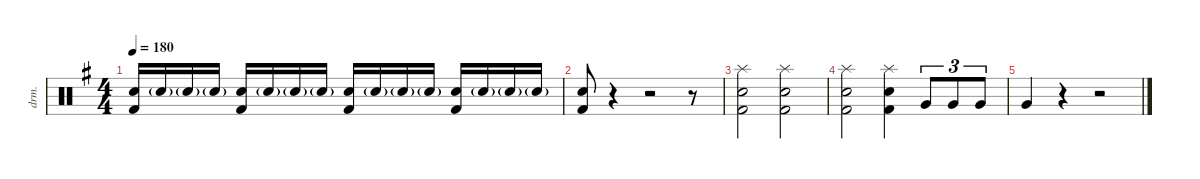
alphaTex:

\defaultSystemsLayout 4
\hideDynamics
\bracketExtendMode nobrackets
\otherSystemsTrackNameOrientation horizontal
\track ("Lars Ulrich" "drm.") {instrument percussion}
\staff {score}
\articulation defaults
\ts (4 4)
\tempo 180
\clef neutral
\ks eminor
("Snare (hit) 2"{acc forcenatural} "Kick (hit) 2"{acc forcenatural}).16{dy f beam Up} "Snare (hit) 2"{g acc forcenatural}.16{dy ff beam Up} "Snare (hit) 2"{g acc forcenatural}.16{beam Up} "Snare (hit) 2"{g acc forcenatural}.16{beam Up} ("Snare (hit) 2"{acc forcenatural} "Kick (hit) 2"{acc forcenatural}).16{dy f beam Up} "Snare (hit) 2"{g acc forcenatural}.16{dy ff beam Up} "Snare (hit) 2"{g acc forcenatural}.16{beam Up} "Snare (hit) 2"{g acc forcenatural}.16{beam Up} ("Snare (hit) 2"{acc forcenatural} "Kick (hit) 2"{acc forcenatural}).16{dy f beam Up} "Snare (hit) 2"{g acc forcenatural}.16{dy ff beam Up} "Snare (hit) 2"{g acc forcenatural}.16{beam Up} "Snare (hit) 2"{g acc forcenatural}.16{beam Up} ("Snare (hit) 2"{acc forcenatural} "Kick (hit) 2"{acc forcenatural}).16{dy f beam Up} "Snare (hit) 2"{g acc forcenatural}.16{dy ff beam Up} "Snare (hit) 2"{g acc forcenatural}.16{beam Up} "Snare (hit) 2"{g acc forcenatural}.16{beam Up} |
("Snare (hit) 2"{acc forcenatural} "Kick (hit) 2"{acc forcenatural}).8{dy f beam Up} r.4{beam Up} r.2{beam Up} r.8{beam Up} |
("Splash (hit)"{acc forcenatural} "Snare (hit) 2"{acc forcenatural} "Kick (hit) 2"{acc forcenatural}).2{beam Down} ("Splash (hit)"{acc forcenatural} "Snare (hit) 2"{acc forcenatural} "Kick (hit) 2"{acc forcenatural}).2{beam Down} |
("Splash (hit)"{acc forcenatural} "Snare (hit) 2"{acc forcenatural} "Kick (hit) 2"{acc forcenatural}).2{beam Down} ("Splash (hit)"{acc forcenatural} "Snare (hit) 2"{acc forcenatural} "Kick (hit) 2"{acc forcenatural}).4{beam Down} "Very Low Tom (hit)"{acc forcenatural}.8{tu (3 2) dy fff beam Up} "Very Low Tom (hit)"{acc forcenatural}.8{tu (3 2) beam Up} "Very Low Tom (hit)"{acc forcenatural}.8{tu (3 2) beam Up} |
"Very Low Tom (hit)"{acc forcenatural}.4{beam Up} r.4{beam Up} r.2{beam Up}
